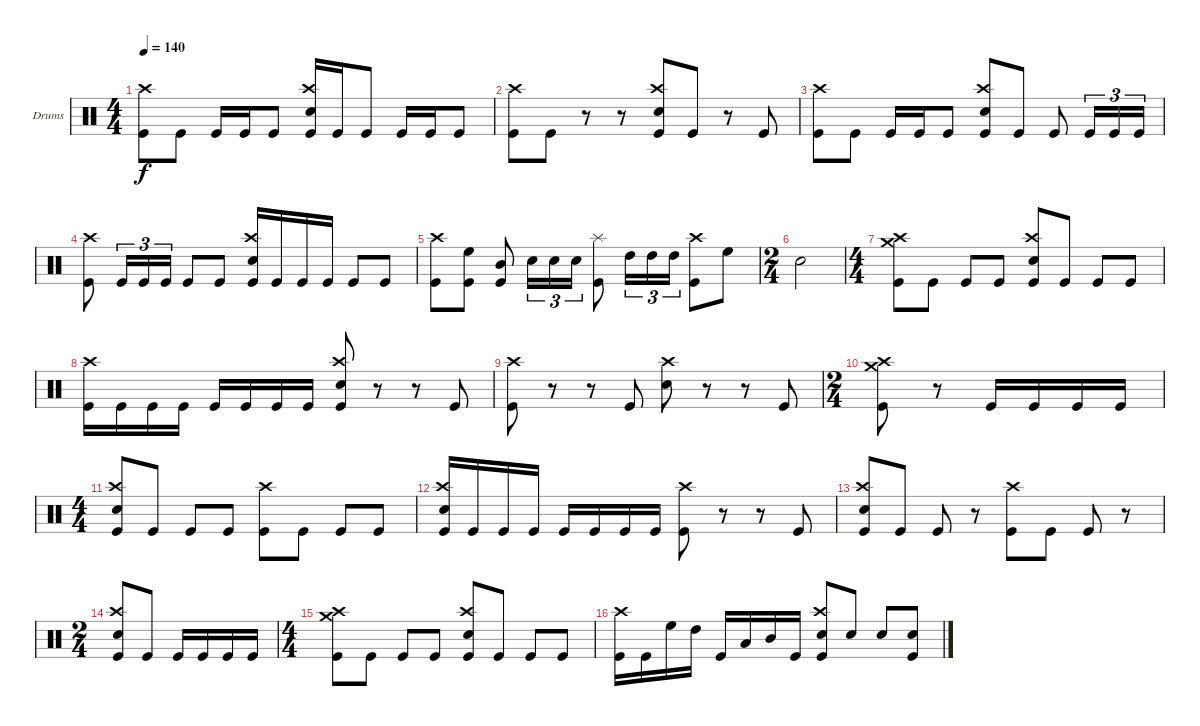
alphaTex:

\bracketExtendMode groupsimilarinstruments
\firstSystemTrackNameOrientation horizontal
\otherSystemsTrackNameOrientation horizontal
\track ("Drumkit" "Drums") {instrument percussion}
\staff {score}
\articulation defaults
\ts (4 4)
\tempo 140
\clef neutral
\ks c
("Kick (hit)" "Crash high (hit)").8{dy f} "Kick (hit)".8 "Kick (hit)".16 "Kick (hit)".16 "Kick (hit)".8 ("Kick (hit)" "Snare (hit) 2" "Crash high (hit)").16 "Kick (hit)".16 "Kick (hit)".8 "Kick (hit)".16 "Kick (hit)".16 "Kick (hit)".8 |
("Kick (hit)" "Crash high (hit)").8 "Kick (hit)".8 r.8 r.8 ("Kick (hit)" "Snare (hit) 2" "Crash high (hit)").8 "Kick (hit)".8 r.8 "Kick (hit)".8 |
("Crash high (hit)" "Kick (hit)").8 "Kick (hit)".8 "Kick (hit)".16 "Kick (hit)".16 "Kick (hit)".8 ("Snare (hit) 2" "Crash high (hit)" "Kick (hit)").8 "Kick (hit)".8 "Kick (hit)".8 "Kick (hit)".16{tu (3 2)} "Kick (hit)".16{tu (3 2)} "Kick (hit)".16{tu (3 2)} |
("Crash high (hit)" "Kick (hit)").8 "Kick (hit)".16{tu (3 2)} "Kick (hit)".16{tu (3 2)} "Kick (hit)".16{tu (3 2)} "Kick (hit)".8 "Kick (hit)".8 ("Snare (hit) 2" "Crash high (hit)" "Kick (hit)").16 "Kick (hit)".16 "Kick (hit)".16 "Kick (hit)".16 "Kick (hit)".8 "Kick (hit)".8 |
("Kick (hit)" "Crash high (hit)").8 ("Kick (hit)" "High Floor Tom (hit)").8 ("Kick (hit)" "Mid Tom (hit)").8 "Snare (hit) 2".16{tu (3 2)} "Snare (hit) 2".16{tu (3 2)} "Snare (hit) 2".16{tu (3 2)} ("Kick (hit)" "Splash (hit)").8 "High Tom (hit)".16{tu (3 2)} "High Tom (hit)".16{tu (3 2)} "High Tom (hit)".16{tu (3 2)} ("Kick (hit)" "Crash high (hit)").8 "High Floor Tom (hit)".8 |
\ts (2 4)
\beaming (8 2 2 2 2)
"Snare (hit) 2".2 |
\ts (4 4)
\beaming (8 2 2 2 2)
("Kick (hit)" "Crash medium (hit)" "Crash high (hit)").8 "Kick (hit)".8 "Kick (hit)".8 "Kick (hit)".8 ("Kick (hit)" "Snare (hit) 2" "Crash high (hit)").8 "Kick (hit)".8 "Kick (hit)".8 "Kick (hit)".8 |
("Kick (hit)" "Crash high (hit)").16 "Kick (hit)".16 "Kick (hit)".16 "Kick (hit)".16 "Kick (hit)".16 "Kick (hit)".16 "Kick (hit)".16 "Kick (hit)".16 ("Kick (hit)" "Snare (hit) 2" "Crash high (hit)").8 r.8 r.8 "Kick (hit)".8 |
("Kick (hit)" "Crash high (hit)").8 r.8 r.8 "Kick (hit)".8 ("Snare (hit) 2" "Crash high (hit)").8 r.8 r.8 "Kick (hit)".8 |
\ts (2 4)
\beaming (8 2 2 2 2)
("Kick (hit)" "Crash medium (hit)" "Crash high (hit)").8 r.8 "Kick (hit)".16 "Kick (hit)".16 "Kick (hit)".16 "Kick (hit)".16 |
\ts (4 4)
\beaming (8 2 2 2 2)
("Kick (hit)" "Crash high (hit)" "Snare (hit) 2").8 "Kick (hit)".8 "Kick (hit)".8 "Kick (hit)".8 ("Kick (hit)" "Crash high (hit)").8 "Kick (hit)".8 "Kick (hit)".8 "Kick (hit)".8 |
("Kick (hit)" "Snare (hit) 2" "Crash high (hit)").16 "Kick (hit)".16 "Kick (hit)".16 "Kick (hit)".16 "Kick (hit)".16 "Kick (hit)".16 "Kick (hit)".16 "Kick (hit)".16 ("Kick (hit)" "Crash high (hit)").8 r.8 r.8 "Kick (hit)".8 |
("Kick (hit)" "Snare (hit) 2" "Crash high (hit)").8 "Kick (hit)".8 "Kick (hit)".8 r.8 ("Kick (hit)" "Crash high (hit)").8 "Kick (hit)".8 "Kick (hit)".8 r.8 |
\ts (2 4)
\beaming (8 2 2 2 2)
("Kick (hit)" "Snare (hit) 2" "Crash high (hit)").8 "Kick (hit)".8 "Kick (hit)".16 "Kick (hit)".16 "Kick (hit)".16 "Kick (hit)".16 |
\ts (4 4)
\beaming (8 2 2 2 2)
("Kick (hit)" "Crash medium (hit)" "Crash high (hit)").8 "Kick (hit)".8 "Kick (hit)".8 "Kick (hit)".8 ("Kick (hit)" "Snare (hit) 2" "Crash high (hit)").8 "Kick (hit)".8 "Kick (hit)".8 "Kick (hit)".8 |
("Kick (hit)" "Crash high (hit)").16 "Kick (hit)".16 "High Floor Tom (hit)".16 "High Tom (hit)".16 "Kick (hit)".16 "Low Tom (hit)".16 "Mid Tom (hit)".16 "Kick (hit)".16 ("Kick (hit)" "Snare (hit) 2" "Crash high (hit)").8 "Snare (hit) 2".8 "Snare (hit) 2".8 ("Kick (hit)" "Snare (hit) 2").8
